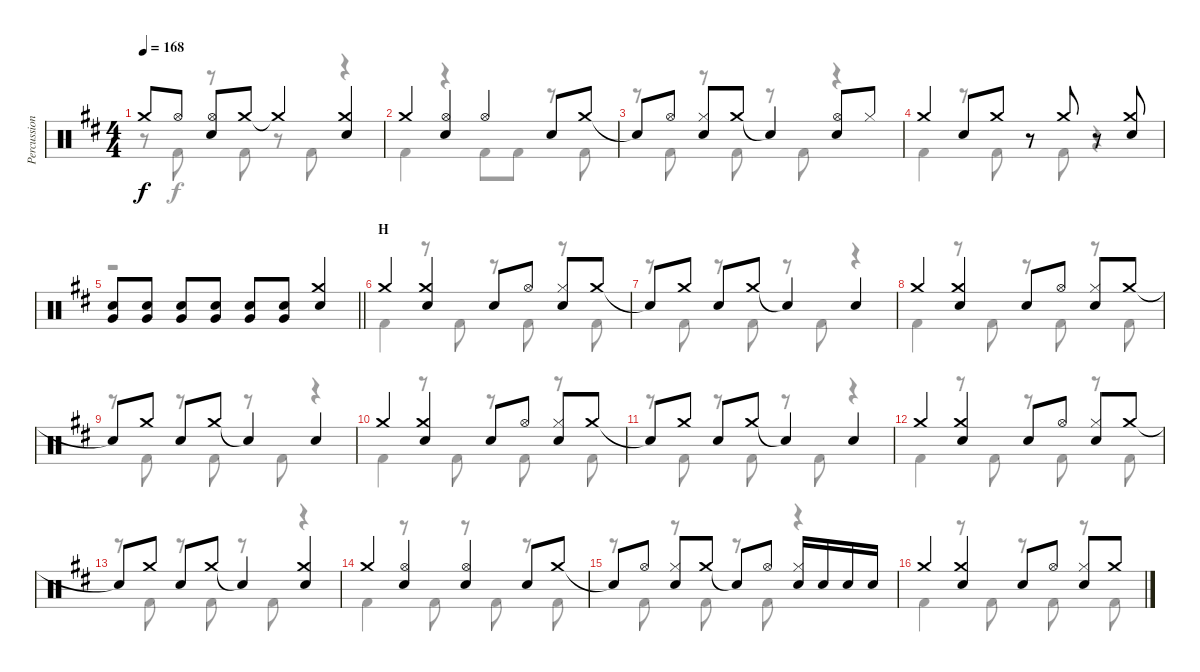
\track ("Percussion" "Percussion") {instrument percussion}
\staff {score}
\articulation defaults
\voice
\ts (4 4)
\tempo 168
\clef neutral
\ks d "Crash medium (hit)"{t}.8{dy f} "Hi-Hat (open)".8
("Hi-Hat (open)" "Snare (hit) 2").8 "Crash medium (hit)".8 "Crash medium (hit)"{t}.4 ("Crash medium (hit)" "Snare (hit) 2").4 |
"Crash medium (hit)".4 ("Hi-Hat (open)" "Snare (hit) 2").4 "Hi-Hat (open)".4 "Snare (hit) 2".8 "Crash medium (hit)".8 |
"Snare (hit)"{t}.8 "Hi-Hat (open)".8 ("Hi-Hat (closed)" "Snare (hit) 2").8 "Crash medium (hit)".8 "Snare (hit)"{t}.4 ("Hi-Hat (open)" "Snare (hit) 2").8 "Hi-Hat (closed)".8 |
"Crash medium (hit)".4 "Snare (hit) 2".8 "Crash medium (hit)".8 r.8 "Crash medium (hit)".8 r.8 ("Crash medium (hit)" "Snare (hit) 2").8 |
\barLineRight lightlight
("Snare (hit) 2" "Very Low Tom (hit)").8 ("Snare (hit) 2" "Very Low Tom (hit)").8 ("Snare (hit) 2" "Very Low Tom (hit)").8 ("Snare (hit) 2" "Very Low Tom (hit)").8 ("Snare (hit) 2" "Very Low Tom (hit)").8 ("Snare (hit) 2" "Very Low Tom (hit)").8 ("Crash medium (hit)" "Snare (hit) 2").4 |
\section ("" "H")
"Crash medium (hit)".4 ("Crash medium (hit)" "Snare (hit) 2").4 "Snare (hit) 2".8 "Hi-Hat (open)".8 ("Hi-Hat (closed)" "Snare (hit) 2").8 "Crash medium (hit)".8 |
"Snare (hit)"{t}.8 "Crash medium (hit)".8 "Snare (hit) 2".8 "Crash medium (hit)".8 "Snare (hit)"{t}.4 "Snare (hit) 2".4 |
"Crash medium (hit)".4 ("Crash medium (hit)" "Snare (hit) 2").4 "Snare (hit) 2".8 "Hi-Hat (open)".8 ("Hi-Hat (closed)" "Snare (hit) 2").8 "Crash medium (hit)".8 |
"Snare (hit)"{t}.8 "Crash medium (hit)".8 "Snare (hit) 2".8 "Crash medium (hit)".8 "Snare (hit)"{t}.4 "Snare (hit) 2".4 |
"Crash medium (hit)".4 ("Crash medium (hit)" "Snare (hit) 2").4 "Snare (hit) 2".8 "Hi-Hat (open)".8 ("Hi-Hat (closed)" "Snare (hit) 2").8 "Crash medium (hit)".8 |
"Snare (hit)"{t}.8 "Crash medium (hit)".8 "Snare (hit) 2".8 "Crash medium (hit)".8 "Snare (hit)"{t}.4 "Snare (hit) 2".4 |
"Crash medium (hit)".4 ("Crash medium (hit)" "Snare (hit) 2").4 "Snare (hit) 2".8 "Hi-Hat (open)".8 ("Hi-Hat (closed)" "Snare (hit) 2").8 "Crash medium (hit)".8 |
"Snare (hit)"{t}.8 "Crash medium (hit)".8 "Snare (hit) 2".8 "Crash medium (hit)".8 "Snare (hit)"{t}.4 ("Crash medium (hit)" "Snare (hit) 2").4 |
"Crash medium (hit)".4 ("Hi-Hat (open)" "Snare (hit) 2").4 ("Hi-Hat (open)" "Snare (hit) 2").4 "Snare (hit) 2".8 "Crash medium (hit)".8 |
"Snare (hit)"{t}.8 "Hi-Hat (open)".8 ("Hi-Hat (closed)" "Snare (hit) 2").8 "Crash medium (hit)".8 "Snare (hit)"{t}.8 "Hi-Hat (open)".8 ("Hi-Hat (closed)" "Snare (hit) 2").16 "Snare (hit) 2".16 "Snare (hit) 2".16 "Snare (hit) 2".16 |
"Crash medium (hit)".4 ("Crash medium (hit)" "Snare (hit) 2").4 "Snare (hit) 2".8 "Hi-Hat (open)".8 ("Hi-Hat (closed)" "Snare (hit) 2").8 "Crash medium (hit)".8
\voice
\clef neutral
\ottava regular
\simile none
\ks d
r.8{dy f} "Kick (hit) 2".8 r.8 "Kick (hit) 2".8 r.8 "Kick (hit) 2".8 r.4 |
"Kick (hit) 2".4 r.4 "Kick (hit) 2".8 "Kick (hit) 2".8 r.8 "Kick (hit) 2".8 |
r.8 "Kick (hit) 2".8 r.8 "Kick (hit) 2".8 r.8 "Kick (hit) 2".8 r.4 |
"Kick (hit) 2".4 r.8 "Kick (hit) 2".8 r.8 "Kick (hit) 2".8 r.4 |
\barLineRight lightlight
r.1 |
"Kick (hit) 2".4 r.8 "Kick (hit) 2".8 r.8 "Kick (hit) 2".8 r.8 "Kick (hit) 2".8 |
r.8 "Kick (hit) 2".8 r.8 "Kick (hit) 2".8 r.8 "Kick (hit) 2".8 r.4 |
"Kick (hit) 2".4 r.8 "Kick (hit) 2".8 r.8 "Kick (hit) 2".8 r.8 "Kick (hit) 2".8 |
r.8 "Kick (hit) 2".8 r.8 "Kick (hit) 2".8 r.8 "Kick (hit) 2".8 r.4 |
"Kick (hit) 2".4 r.8 "Kick (hit) 2".8 r.8 "Kick (hit) 2".8 r.8 "Kick (hit) 2".8 |
r.8 "Kick (hit) 2".8 r.8 "Kick (hit) 2".8 r.8 "Kick (hit) 2".8 r.4 |
"Kick (hit) 2".4 r.8 "Kick (hit) 2".8 r.8 "Kick (hit) 2".8 r.8 "Kick (hit) 2".8 |
r.8 "Kick (hit) 2".8 r.8 "Kick (hit) 2".8 r.8 "Kick (hit) 2".8 r.4 |
"Kick (hit) 2".4 r.8 "Kick (hit) 2".8 r.8 "Kick (hit) 2".8 r.8 "Kick (hit) 2".8 |
r.8 "Kick (hit) 2".8 r.8 "Kick (hit) 2".8 r.8 "Kick (hit) 2".8 r.4 |
"Kick (hit) 2".4 r.8 "Kick (hit) 2".8 r.8 "Kick (hit) 2".8 r.8 "Kick (hit) 2".8
